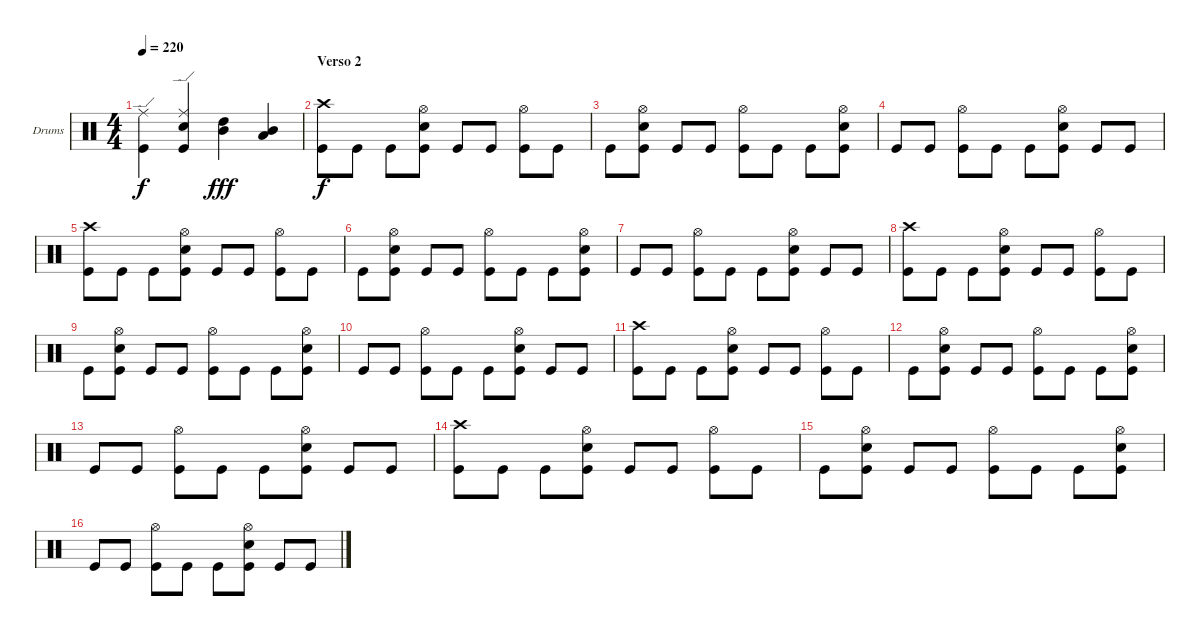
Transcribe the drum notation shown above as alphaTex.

\defaultSystemsLayout 4
\bracketExtendMode groupsimilarinstruments
\firstSystemTrackNameOrientation horizontal
\otherSystemsTrackNameOrientation horizontal
\track ("Drumkit" "Drums") {instrument percussion}
\staff {score}
\articulation defaults
\ts (4 4)
\tempo 220
\clef neutral
\ks c
("Kick (hit)" "Ride (edge)").4{dy f} ("Snare (hit) 2" "Ride (edge)" "Kick (hit)").4 ("High Tom (hit)" "Mid Tom (hit)").4{dy fff} ("Low Tom (hit)" "Mid Tom (hit)").4 |
\section ("" "Verso 2")
("Kick (hit)" "Crash high (hit)").8{dy f} "Kick (hit)".8 "Kick (hit)".8 ("Hi-Hat (open)" "Snare (hit) 2" "Kick (hit)").8 "Kick (hit)".8 "Kick (hit)".8 ("Hi-Hat (open)" "Kick (hit)").8 "Kick (hit)".8 |
"Kick (hit)".8 ("Hi-Hat (open)" "Snare (hit) 2" "Kick (hit)").8 "Kick (hit)".8 "Kick (hit)".8 ("Hi-Hat (open)" "Kick (hit)").8 "Kick (hit)".8 "Kick (hit)".8 ("Hi-Hat (open)" "Snare (hit) 2" "Kick (hit)").8 |
"Kick (hit)".8 "Kick (hit)".8 ("Hi-Hat (open)" "Kick (hit)").8 "Kick (hit)".8 "Kick (hit)".8 ("Hi-Hat (open)" "Snare (hit) 2" "Kick (hit)").8 "Kick (hit)".8 "Kick (hit)".8 |
("Kick (hit)" "Crash high (hit)").8 "Kick (hit)".8 "Kick (hit)".8 ("Hi-Hat (open)" "Snare (hit) 2" "Kick (hit)").8 "Kick (hit)".8 "Kick (hit)".8 ("Hi-Hat (open)" "Kick (hit)").8 "Kick (hit)".8 |
"Kick (hit)".8 ("Hi-Hat (open)" "Snare (hit) 2" "Kick (hit)").8 "Kick (hit)".8 "Kick (hit)".8 ("Hi-Hat (open)" "Kick (hit)").8 "Kick (hit)".8 "Kick (hit)".8 ("Hi-Hat (open)" "Snare (hit) 2" "Kick (hit)").8 |
"Kick (hit)".8 "Kick (hit)".8 ("Hi-Hat (open)" "Kick (hit)").8 "Kick (hit)".8 "Kick (hit)".8 ("Hi-Hat (open)" "Snare (hit) 2" "Kick (hit)").8 "Kick (hit)".8 "Kick (hit)".8 |
("Kick (hit)" "Crash high (hit)").8 "Kick (hit)".8 "Kick (hit)".8 ("Hi-Hat (open)" "Snare (hit) 2" "Kick (hit)").8 "Kick (hit)".8 "Kick (hit)".8 ("Hi-Hat (open)" "Kick (hit)").8 "Kick (hit)".8 |
"Kick (hit)".8 ("Hi-Hat (open)" "Snare (hit) 2" "Kick (hit)").8 "Kick (hit)".8 "Kick (hit)".8 ("Hi-Hat (open)" "Kick (hit)").8 "Kick (hit)".8 "Kick (hit)".8 ("Hi-Hat (open)" "Snare (hit) 2" "Kick (hit)").8 |
"Kick (hit)".8 "Kick (hit)".8 ("Hi-Hat (open)" "Kick (hit)").8 "Kick (hit)".8 "Kick (hit)".8 ("Hi-Hat (open)" "Snare (hit) 2" "Kick (hit)").8 "Kick (hit)".8 "Kick (hit)".8 |
("Kick (hit)" "Crash high (hit)").8 "Kick (hit)".8 "Kick (hit)".8 ("Hi-Hat (open)" "Snare (hit) 2" "Kick (hit)").8 "Kick (hit)".8 "Kick (hit)".8 ("Hi-Hat (open)" "Kick (hit)").8 "Kick (hit)".8 |
"Kick (hit)".8 ("Hi-Hat (open)" "Snare (hit) 2" "Kick (hit)").8 "Kick (hit)".8 "Kick (hit)".8 ("Hi-Hat (open)" "Kick (hit)").8 "Kick (hit)".8 "Kick (hit)".8 ("Hi-Hat (open)" "Snare (hit) 2" "Kick (hit)").8 |
"Kick (hit)".8 "Kick (hit)".8 ("Hi-Hat (open)" "Kick (hit)").8 "Kick (hit)".8 "Kick (hit)".8 ("Hi-Hat (open)" "Snare (hit) 2" "Kick (hit)").8 "Kick (hit)".8 "Kick (hit)".8 |
("Kick (hit)" "Crash high (hit)").8 "Kick (hit)".8 "Kick (hit)".8 ("Hi-Hat (open)" "Snare (hit) 2" "Kick (hit)").8 "Kick (hit)".8 "Kick (hit)".8 ("Hi-Hat (open)" "Kick (hit)").8 "Kick (hit)".8 |
"Kick (hit)".8 ("Hi-Hat (open)" "Snare (hit) 2" "Kick (hit)").8 "Kick (hit)".8 "Kick (hit)".8 ("Hi-Hat (open)" "Kick (hit)").8 "Kick (hit)".8 "Kick (hit)".8 ("Hi-Hat (open)" "Snare (hit) 2" "Kick (hit)").8 |
"Kick (hit)".8 "Kick (hit)".8 ("Hi-Hat (open)" "Kick (hit)").8 "Kick (hit)".8 "Kick (hit)".8 ("Hi-Hat (open)" "Snare (hit) 2" "Kick (hit)").8 "Kick (hit)".8 "Kick (hit)".8
